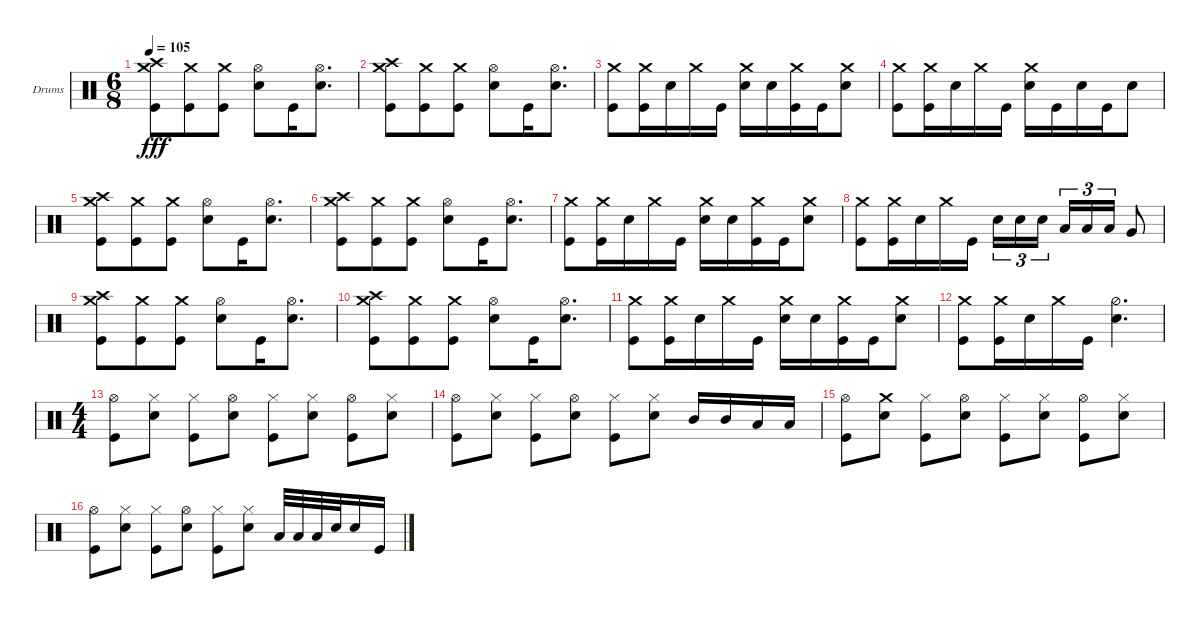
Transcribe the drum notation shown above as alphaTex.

\bracketExtendMode groupsimilarinstruments
\firstSystemTrackNameOrientation horizontal
\otherSystemsTrackNameOrientation horizontal
\track ("Andrew Forsman" "Drums") {instrument percussion}
\staff {score}
\articulation defaults
\ts (6 8)
\tempo 105
\clef neutral
\scale
0.333333
\ks c
("Kick (hit)" "Crash medium (hit)" "Crash high (hit)").8{dy fff} ("Kick (hit)" "Crash medium (hit)").8 ("Kick (hit)" "Crash medium (hit)").8 ("Snare (hit) 2" "Hi-Hat (open)").8 "Kick (hit)".16 ("Snare (hit) 2" "Hi-Hat (open)").8{d} |
\scale
0.333333 ("Kick (hit)" "Crash medium (hit)" "Crash high (hit)").8 ("Kick (hit)" "Crash medium (hit)").8 ("Kick (hit)" "Crash medium (hit)").8 ("Snare (hit) 2" "Hi-Hat (open)").8 "Kick (hit)".16 ("Snare (hit) 2" "Hi-Hat (open)").8{d} |
\scale
0.333333 ("Kick (hit)" "Crash medium (hit)").8 ("Kick (hit)" "Crash medium (hit)").16 "Snare (hit) 2".16 "Crash medium (hit)".16 "Kick (hit)".16 ("Snare (hit) 2" "Crash medium (hit)").16 "Snare (hit) 2".16 ("Kick (hit)" "Crash medium (hit)").16 "Kick (hit)".16 ("Snare (hit) 2" "Crash medium (hit)").8 |
\scale
0.333333 ("Kick (hit)" "Crash medium (hit)").8 ("Kick (hit)" "Crash medium (hit)").16 "Snare (hit) 2".16 "Crash medium (hit)".16 "Kick (hit)".16 ("Snare (hit) 2" "Crash medium (hit)").16 "Kick (hit)".16 "Snare (hit) 2".16 "Kick (hit)".16 "Snare (hit) 2".8 |
\scale
0.333333 ("Kick (hit)" "Crash medium (hit)" "Crash high (hit)").8 ("Kick (hit)" "Crash medium (hit)").8 ("Kick (hit)" "Crash medium (hit)").8 ("Snare (hit) 2" "Hi-Hat (open)").8 "Kick (hit)".16 ("Snare (hit) 2" "Hi-Hat (open)").8{d} |
\scale
0.333333 ("Kick (hit)" "Crash medium (hit)" "Crash high (hit)").8 ("Kick (hit)" "Crash medium (hit)").8 ("Kick (hit)" "Crash medium (hit)").8 ("Snare (hit) 2" "Hi-Hat (open)").8 "Kick (hit)".16 ("Snare (hit) 2" "Hi-Hat (open)").8{d} |
\scale
0.333333 ("Kick (hit)" "Crash medium (hit)").8 ("Kick (hit)" "Crash medium (hit)").16 "Snare (hit) 2".16 "Crash medium (hit)".16 "Kick (hit)".16 ("Snare (hit) 2" "Crash medium (hit)").16 "Snare (hit) 2".16 ("Kick (hit)" "Crash medium (hit)").16 "Kick (hit)".16 ("Snare (hit) 2" "Crash medium (hit)").8 |
\scale
0.333333 ("Kick (hit)" "Crash medium (hit)").8 ("Kick (hit)" "Crash medium (hit)").16 "Snare (hit) 2".16 "Crash medium (hit)".16 "Kick (hit)".16 "Snare (hit) 2".16{tu (3 2)} "Snare (hit) 2".16{tu (3 2)} "Snare (hit) 2".16{tu (3 2)} "Low Tom (hit)".16{tu (3 2)} "Low Tom (hit)".16{tu (3 2)} "Low Tom (hit)".16{tu (3 2)} "Very Low Tom (hit)".8 |
\scale
0.333333 ("Kick (hit)" "Crash medium (hit)" "Crash high (hit)").8 ("Kick (hit)" "Crash medium (hit)").8 ("Kick (hit)" "Crash medium (hit)").8 ("Snare (hit) 2" "Hi-Hat (open)").8 "Kick (hit)".16 ("Snare (hit) 2" "Hi-Hat (open)").8{d} |
\scale
0.333333 ("Kick (hit)" "Crash medium (hit)" "Crash high (hit)").8 ("Kick (hit)" "Crash medium (hit)").8 ("Kick (hit)" "Crash medium (hit)").8 ("Snare (hit) 2" "Hi-Hat (open)").8 "Kick (hit)".16 ("Snare (hit) 2" "Hi-Hat (open)").8{d} |
\scale
0.333333 ("Kick (hit)" "Crash medium (hit)").8 ("Kick (hit)" "Crash medium (hit)").16 "Snare (hit) 2".16 "Crash medium (hit)".16 "Kick (hit)".16 ("Snare (hit) 2" "Crash medium (hit)").16 "Snare (hit) 2".16 ("Kick (hit)" "Crash medium (hit)").16 "Kick (hit)".16 ("Snare (hit) 2" "Crash medium (hit)").8 |
\scale
0.333333 ("Kick (hit)" "Crash medium (hit)").8 ("Kick (hit)" "Crash medium (hit)").16 "Snare (hit) 2".16 "Crash medium (hit)".16 "Kick (hit)".16 ("Snare (hit) 2" "Hi-Hat (half)").4{d} |
\ts (4 4)
\beaming (8 2 2 2 2)
\scale
0.474178 ("Kick (hit)" "Hi-Hat (open)").8 ("Snare (hit) 2" "Hi-Hat (closed)").8 ("Kick (hit)" "Hi-Hat (closed)").8 ("Snare (hit) 2" "Hi-Hat (open)").8 ("Kick (hit)" "Hi-Hat (closed)").8 ("Snare (hit) 2" "Hi-Hat (closed)").8 ("Kick (hit)" "Hi-Hat (open)").8 ("Snare (hit) 2" "Hi-Hat (closed)").8 |
\scale
0.262911 ("Kick (hit)" "Hi-Hat (open)").8 ("Snare (hit) 2" "Hi-Hat (closed)").8 ("Kick (hit)" "Hi-Hat (closed)").8 ("Snare (hit) 2" "Hi-Hat (open)").8 ("Kick (hit)" "Hi-Hat (closed)").8 ("Snare (hit) 2" "Hi-Hat (closed)").8 "Mid Tom (hit)".16 "Mid Tom (hit)".16 "Low Tom (hit)".16 "Low Tom (hit)".16 |
\scale
0.262911 ("Kick (hit)" "Hi-Hat (open)").8 ("Snare (hit) 2" "Crash medium (hit)").8 ("Kick (hit)" "Hi-Hat (closed)").8 ("Snare (hit) 2" "Hi-Hat (open)").8 ("Kick (hit)" "Hi-Hat (closed)").8 ("Snare (hit) 2" "Hi-Hat (closed)").8 ("Kick (hit)" "Hi-Hat (open)").8 ("Snare (hit) 2" "Hi-Hat (closed)").8 |
\scale
0.333333 ("Kick (hit)" "Hi-Hat (open)").8 ("Snare (hit) 2" "Hi-Hat (closed)").8 ("Kick (hit)" "Hi-Hat (closed)").8 ("Snare (hit) 2" "Hi-Hat (open)").8 ("Kick (hit)" "Hi-Hat (closed)").8 ("Snare (hit) 2" "Hi-Hat (closed)").8 "Low Tom (hit)".32 "Low Tom (hit)".32 "Low Tom (hit)".32 "Snare (hit) 2".32 "Snare (hit) 2".16 "Kick (hit)".16
